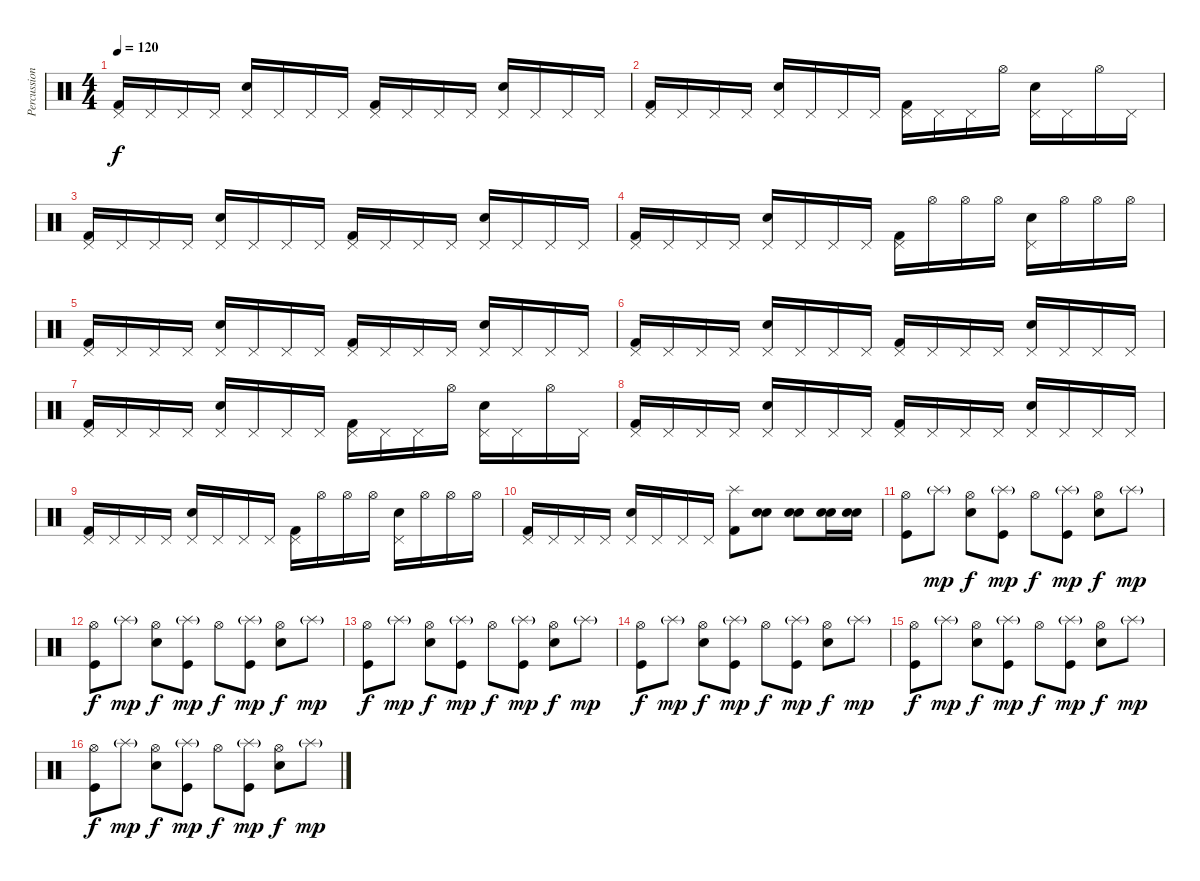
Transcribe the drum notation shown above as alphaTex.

\track ("Percussion" "Percussion") {instrument percussion}
\staff {score}
\articulation defaults
\ts (4 4)
\tempo 120
\clef neutral
\ks c
("Kick (hit) 2" "Pedal Hi-Hat (hit)").16{dy f} "Pedal Hi-Hat (hit)".16 "Pedal Hi-Hat (hit)".16 "Pedal Hi-Hat (hit)".16 ("Electric Snare (hit)" "Pedal Hi-Hat (hit)").16 "Pedal Hi-Hat (hit)".16 "Pedal Hi-Hat (hit)".16 "Pedal Hi-Hat (hit)".16 ("Kick (hit) 2" "Pedal Hi-Hat (hit)").16 "Pedal Hi-Hat (hit)".16 "Pedal Hi-Hat (hit)".16 "Pedal Hi-Hat (hit)".16 ("Electric Snare (hit)" "Pedal Hi-Hat (hit)").16 "Pedal Hi-Hat (hit)".16 "Pedal Hi-Hat (hit)".16 "Pedal Hi-Hat (hit)".16 |
("Kick (hit) 2" "Pedal Hi-Hat (hit)").16 "Pedal Hi-Hat (hit)".16 "Pedal Hi-Hat (hit)".16 "Pedal Hi-Hat (hit)".16 ("Electric Snare (hit)" "Pedal Hi-Hat (hit)").16 "Pedal Hi-Hat (hit)".16 "Pedal Hi-Hat (hit)".16 "Pedal Hi-Hat (hit)".16 ("Kick (hit) 2" "Pedal Hi-Hat (hit)").16 "Pedal Hi-Hat (hit)".16 "Pedal Hi-Hat (hit)".16 "Hi-Hat (open)".16 ("Electric Snare (hit)" "Pedal Hi-Hat (hit)").16 "Pedal Hi-Hat (hit)".16 "Hi-Hat (open)".16 "Pedal Hi-Hat (hit)".16 |
("Kick (hit) 2" "Pedal Hi-Hat (hit)").16 "Pedal Hi-Hat (hit)".16 "Pedal Hi-Hat (hit)".16 "Pedal Hi-Hat (hit)".16 ("Electric Snare (hit)" "Pedal Hi-Hat (hit)").16 "Pedal Hi-Hat (hit)".16 "Pedal Hi-Hat (hit)".16 "Pedal Hi-Hat (hit)".16 ("Kick (hit) 2" "Pedal Hi-Hat (hit)").16 "Pedal Hi-Hat (hit)".16 "Pedal Hi-Hat (hit)".16 "Pedal Hi-Hat (hit)".16 ("Electric Snare (hit)" "Pedal Hi-Hat (hit)").16 "Pedal Hi-Hat (hit)".16 "Pedal Hi-Hat (hit)".16 "Pedal Hi-Hat (hit)".16 |
("Kick (hit) 2" "Pedal Hi-Hat (hit)").16 "Pedal Hi-Hat (hit)".16 "Pedal Hi-Hat (hit)".16 "Pedal Hi-Hat (hit)".16 ("Electric Snare (hit)" "Pedal Hi-Hat (hit)").16 "Pedal Hi-Hat (hit)".16 "Pedal Hi-Hat (hit)".16 "Pedal Hi-Hat (hit)".16 ("Kick (hit) 2" "Pedal Hi-Hat (hit)").16 "Hi-Hat (open)".16 "Hi-Hat (open)".16 "Hi-Hat (open)".16 ("Electric Snare (hit)" "Pedal Hi-Hat (hit)").16 "Hi-Hat (open)".16 "Hi-Hat (open)".16 "Hi-Hat (open)".16 |
("Kick (hit) 2" "Pedal Hi-Hat (hit)").16 "Pedal Hi-Hat (hit)".16 "Pedal Hi-Hat (hit)".16 "Pedal Hi-Hat (hit)".16 ("Electric Snare (hit)" "Pedal Hi-Hat (hit)").16 "Pedal Hi-Hat (hit)".16 "Pedal Hi-Hat (hit)".16 "Pedal Hi-Hat (hit)".16 ("Kick (hit) 2" "Pedal Hi-Hat (hit)").16 "Pedal Hi-Hat (hit)".16 "Pedal Hi-Hat (hit)".16 "Pedal Hi-Hat (hit)".16 ("Electric Snare (hit)" "Pedal Hi-Hat (hit)").16 "Pedal Hi-Hat (hit)".16 "Pedal Hi-Hat (hit)".16 "Pedal Hi-Hat (hit)".16 |
("Kick (hit) 2" "Pedal Hi-Hat (hit)").16 "Pedal Hi-Hat (hit)".16 "Pedal Hi-Hat (hit)".16 "Pedal Hi-Hat (hit)".16 ("Electric Snare (hit)" "Pedal Hi-Hat (hit)").16 "Pedal Hi-Hat (hit)".16 "Pedal Hi-Hat (hit)".16 "Pedal Hi-Hat (hit)".16 ("Kick (hit) 2" "Pedal Hi-Hat (hit)").16 "Pedal Hi-Hat (hit)".16 "Pedal Hi-Hat (hit)".16 "Pedal Hi-Hat (hit)".16 ("Electric Snare (hit)" "Pedal Hi-Hat (hit)").16 "Pedal Hi-Hat (hit)".16 "Pedal Hi-Hat (hit)".16 "Pedal Hi-Hat (hit)".16 |
("Kick (hit) 2" "Pedal Hi-Hat (hit)").16 "Pedal Hi-Hat (hit)".16 "Pedal Hi-Hat (hit)".16 "Pedal Hi-Hat (hit)".16 ("Electric Snare (hit)" "Pedal Hi-Hat (hit)").16 "Pedal Hi-Hat (hit)".16 "Pedal Hi-Hat (hit)".16 "Pedal Hi-Hat (hit)".16 ("Kick (hit) 2" "Pedal Hi-Hat (hit)").16 "Pedal Hi-Hat (hit)".16 "Pedal Hi-Hat (hit)".16 "Hi-Hat (open)".16 ("Electric Snare (hit)" "Pedal Hi-Hat (hit)").16 "Pedal Hi-Hat (hit)".16 "Hi-Hat (open)".16 "Pedal Hi-Hat (hit)".16 |
("Kick (hit) 2" "Pedal Hi-Hat (hit)").16 "Pedal Hi-Hat (hit)".16 "Pedal Hi-Hat (hit)".16 "Pedal Hi-Hat (hit)".16 ("Electric Snare (hit)" "Pedal Hi-Hat (hit)").16 "Pedal Hi-Hat (hit)".16 "Pedal Hi-Hat (hit)".16 "Pedal Hi-Hat (hit)".16 ("Kick (hit) 2" "Pedal Hi-Hat (hit)").16 "Pedal Hi-Hat (hit)".16 "Pedal Hi-Hat (hit)".16 "Pedal Hi-Hat (hit)".16 ("Electric Snare (hit)" "Pedal Hi-Hat (hit)").16 "Pedal Hi-Hat (hit)".16 "Pedal Hi-Hat (hit)".16 "Pedal Hi-Hat (hit)".16 |
("Kick (hit) 2" "Pedal Hi-Hat (hit)").16 "Pedal Hi-Hat (hit)".16 "Pedal Hi-Hat (hit)".16 "Pedal Hi-Hat (hit)".16 ("Electric Snare (hit)" "Pedal Hi-Hat (hit)").16 "Pedal Hi-Hat (hit)".16 "Pedal Hi-Hat (hit)".16 "Pedal Hi-Hat (hit)".16 ("Kick (hit) 2" "Pedal Hi-Hat (hit)").16 "Hi-Hat (open)".16 "Hi-Hat (open)".16 "Hi-Hat (open)".16 ("Electric Snare (hit)" "Pedal Hi-Hat (hit)").16 "Hi-Hat (open)".16 "Hi-Hat (open)".16 "Hi-Hat (open)".16 |
("Kick (hit) 2" "Pedal Hi-Hat (hit)").16 "Pedal Hi-Hat (hit)".16 "Pedal Hi-Hat (hit)".16 "Pedal Hi-Hat (hit)".16 ("Electric Snare (hit)" "Pedal Hi-Hat (hit)").16 "Pedal Hi-Hat (hit)".16 "Pedal Hi-Hat (hit)".16 "Pedal Hi-Hat (hit)".16 ("Kick (hit) 2" "Splash (hit)").8 ("Electric Snare (hit)" "Electric Snare (hit)").8 ("Electric Snare (hit)" "Electric Snare (hit)").8 ("Electric Snare (hit)" "Electric Snare (hit)").16 ("Electric Snare (hit)" "Electric Snare (hit)").16 |
("Hi-Hat (open)" "Kick (hit)").8 "Splash (hit)"{g}.8{dy mp} ("Hi-Hat (open)" "Electric Snare (hit)").8{dy f} ("Splash (hit)"{g} "Kick (hit)").8{dy mp} "Hi-Hat (open)".8{dy f} ("Splash (hit)"{g} "Kick (hit)").8{dy mp} ("Hi-Hat (open)" "Electric Snare (hit)").8{dy f} "Splash (hit)"{g}.8{dy mp} |
("Hi-Hat (open)" "Kick (hit)").8{dy f} "Splash (hit)"{g}.8{dy mp} ("Hi-Hat (open)" "Electric Snare (hit)").8{dy f} ("Splash (hit)"{g} "Kick (hit)").8{dy mp} "Hi-Hat (open)".8{dy f} ("Splash (hit)"{g} "Kick (hit)").8{dy mp} ("Hi-Hat (open)" "Electric Snare (hit)").8{dy f} "Splash (hit)"{g}.8{dy mp} |
("Hi-Hat (open)" "Kick (hit)").8{dy f} "Splash (hit)"{g}.8{dy mp} ("Hi-Hat (open)" "Electric Snare (hit)").8{dy f} ("Splash (hit)"{g} "Kick (hit)").8{dy mp} "Hi-Hat (open)".8{dy f} ("Splash (hit)"{g} "Kick (hit)").8{dy mp} ("Hi-Hat (open)" "Electric Snare (hit)").8{dy f} "Splash (hit)"{g}.8{dy mp} |
("Hi-Hat (open)" "Kick (hit)").8{dy f} "Splash (hit)"{g}.8{dy mp} ("Hi-Hat (open)" "Electric Snare (hit)").8{dy f} ("Splash (hit)"{g} "Kick (hit)").8{dy mp} "Hi-Hat (open)".8{dy f} ("Splash (hit)"{g} "Kick (hit)").8{dy mp} ("Hi-Hat (open)" "Electric Snare (hit)").8{dy f} "Splash (hit)"{g}.8{dy mp} |
("Hi-Hat (open)" "Kick (hit)").8{dy f} "Splash (hit)"{g}.8{dy mp} ("Hi-Hat (open)" "Electric Snare (hit)").8{dy f} ("Splash (hit)"{g} "Kick (hit)").8{dy mp} "Hi-Hat (open)".8{dy f} ("Splash (hit)"{g} "Kick (hit)").8{dy mp} ("Hi-Hat (open)" "Electric Snare (hit)").8{dy f} "Splash (hit)"{g}.8{dy mp} |
("Hi-Hat (open)" "Kick (hit)").8{dy f} "Splash (hit)"{g}.8{dy mp} ("Hi-Hat (open)" "Electric Snare (hit)").8{dy f} ("Splash (hit)"{g} "Kick (hit)").8{dy mp} "Hi-Hat (open)".8{dy f} ("Splash (hit)"{g} "Kick (hit)").8{dy mp} ("Hi-Hat (open)" "Electric Snare (hit)").8{dy f} "Splash (hit)"{g}.8{dy mp}
